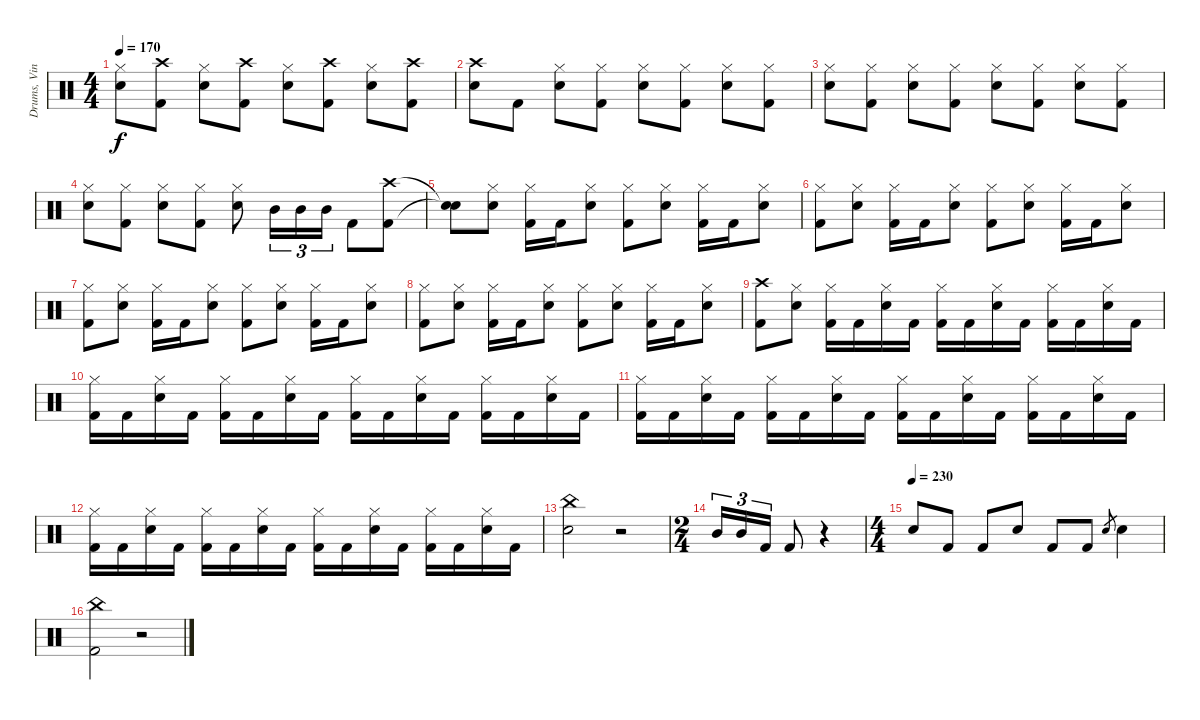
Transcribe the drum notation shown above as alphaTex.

\track ("Drums, Vinnie" "Drums, Vin") {instrument percussion}
\staff {score}
\articulation defaults
\ts (4 4)
\tempo 170
\clef neutral
\ks c
("Hi-Hat (closed)" "Electric Snare (hit)").8{dy f} ("Crash high (hit)" "Kick (hit) 2").8 ("Hi-Hat (closed)" "Electric Snare (hit)").8 ("Crash high (hit)" "Kick (hit) 2").8 ("Hi-Hat (closed)" "Electric Snare (hit)").8 ("Crash high (hit)" "Kick (hit) 2").8 ("Hi-Hat (closed)" "Electric Snare (hit)").8 ("Crash high (hit)" "Kick (hit) 2").8 |
("Crash high (hit)" "Electric Snare (hit)").8 "Kick (hit) 2".8 ("Hi-Hat (closed)" "Electric Snare (hit)").8 ("Hi-Hat (closed)" "Kick (hit) 2").8 ("Hi-Hat (closed)" "Electric Snare (hit)").8 ("Hi-Hat (closed)" "Kick (hit) 2").8 ("Hi-Hat (closed)" "Electric Snare (hit)").8 ("Hi-Hat (closed)" "Kick (hit) 2").8 |
("Hi-Hat (closed)" "Electric Snare (hit)").8 ("Hi-Hat (closed)" "Kick (hit) 2").8 ("Hi-Hat (closed)" "Electric Snare (hit)").8 ("Hi-Hat (closed)" "Kick (hit) 2").8 ("Hi-Hat (closed)" "Electric Snare (hit)").8 ("Hi-Hat (closed)" "Kick (hit) 2").8 ("Hi-Hat (closed)" "Electric Snare (hit)").8 ("Hi-Hat (closed)" "Kick (hit) 2").8 |
("Hi-Hat (closed)" "Electric Snare (hit)").8 ("Hi-Hat (closed)" "Kick (hit) 2").8 ("Hi-Hat (closed)" "Electric Snare (hit)").8 ("Hi-Hat (closed)" "Kick (hit) 2").8 ("Hi-Hat (closed)" "Electric Snare (hit)").8 "Mid Tom (hit)".16{tu (3 2)} "Mid Tom (hit)".16{tu (3 2)} "Mid Tom (hit)".16{tu (3 2)} "Kick (hit) 2".8 ("Crash high (hit)" "Kick (hit) 2").8 |
("Snare (hit)"{t} "Snare (hit)"{t}).8 ("Hi-Hat (closed)" "Electric Snare (hit)").8 ("Hi-Hat (closed)" "Kick (hit) 2").16 "Kick (hit) 2".16 ("Hi-Hat (closed)" "Electric Snare (hit)").8 ("Hi-Hat (closed)" "Kick (hit) 2").8 ("Hi-Hat (closed)" "Electric Snare (hit)").8 ("Hi-Hat (closed)" "Kick (hit) 2").16 "Kick (hit) 2".16 ("Hi-Hat (closed)" "Electric Snare (hit)").8 |
("Hi-Hat (closed)" "Kick (hit) 2").8 ("Hi-Hat (closed)" "Electric Snare (hit)").8 ("Hi-Hat (closed)" "Kick (hit) 2").16 "Kick (hit) 2".16 ("Hi-Hat (closed)" "Electric Snare (hit)").8 ("Hi-Hat (closed)" "Kick (hit) 2").8 ("Hi-Hat (closed)" "Electric Snare (hit)").8 ("Hi-Hat (closed)" "Kick (hit) 2").16 "Kick (hit) 2".16 ("Hi-Hat (closed)" "Electric Snare (hit)").8 |
("Hi-Hat (closed)" "Kick (hit) 2").8 ("Hi-Hat (closed)" "Electric Snare (hit)").8 ("Hi-Hat (closed)" "Kick (hit) 2").16 "Kick (hit) 2".16 ("Hi-Hat (closed)" "Electric Snare (hit)").8 ("Hi-Hat (closed)" "Kick (hit) 2").8 ("Hi-Hat (closed)" "Electric Snare (hit)").8 ("Hi-Hat (closed)" "Kick (hit) 2").16 "Kick (hit) 2".16 ("Hi-Hat (closed)" "Electric Snare (hit)").8 |
("Hi-Hat (closed)" "Kick (hit) 2").8 ("Hi-Hat (closed)" "Electric Snare (hit)").8 ("Hi-Hat (closed)" "Kick (hit) 2").16 "Kick (hit) 2".16 ("Hi-Hat (closed)" "Electric Snare (hit)").8 ("Hi-Hat (closed)" "Kick (hit) 2").8 ("Hi-Hat (closed)" "Electric Snare (hit)").8 ("Hi-Hat (closed)" "Kick (hit) 2").16 "Kick (hit) 2".16 ("Hi-Hat (closed)" "Electric Snare (hit)").8 |
("Crash high (hit)" "Kick (hit) 2").8 ("Hi-Hat (closed)" "Electric Snare (hit)").8 ("Hi-Hat (closed)" "Kick (hit) 2").16 "Kick (hit) 2".16 ("Hi-Hat (closed)" "Electric Snare (hit)").16 "Kick (hit) 2".16 ("Hi-Hat (closed)" "Kick (hit) 2").16 "Kick (hit) 2".16 ("Hi-Hat (closed)" "Electric Snare (hit)").16 "Kick (hit) 2".16 ("Hi-Hat (closed)" "Kick (hit) 2").16 "Kick (hit) 2".16 ("Hi-Hat (closed)" "Electric Snare (hit)").16 "Kick (hit) 2".16 |
("Hi-Hat (closed)" "Kick (hit) 2").16 "Kick (hit) 2".16 ("Hi-Hat (closed)" "Electric Snare (hit)").16 "Kick (hit) 2".16 ("Hi-Hat (closed)" "Kick (hit) 2").16 "Kick (hit) 2".16 ("Hi-Hat (closed)" "Electric Snare (hit)").16 "Kick (hit) 2".16 ("Hi-Hat (closed)" "Kick (hit) 2").16 "Kick (hit) 2".16 ("Hi-Hat (closed)" "Electric Snare (hit)").16 "Kick (hit) 2".16 ("Hi-Hat (closed)" "Kick (hit) 2").16 "Kick (hit) 2".16 ("Hi-Hat (closed)" "Electric Snare (hit)").16 "Kick (hit) 2".16 |
("Hi-Hat (closed)" "Kick (hit) 2").16 "Kick (hit) 2".16 ("Hi-Hat (closed)" "Electric Snare (hit)").16 "Kick (hit) 2".16 ("Hi-Hat (closed)" "Kick (hit) 2").16 "Kick (hit) 2".16 ("Hi-Hat (closed)" "Electric Snare (hit)").16 "Kick (hit) 2".16 ("Hi-Hat (closed)" "Kick (hit) 2").16 "Kick (hit) 2".16 ("Hi-Hat (closed)" "Electric Snare (hit)").16 "Kick (hit) 2".16 ("Hi-Hat (closed)" "Kick (hit) 2").16 "Kick (hit) 2".16 ("Hi-Hat (closed)" "Electric Snare (hit)").16 "Kick (hit) 2".16 |
("Hi-Hat (closed)" "Kick (hit) 2").16 "Kick (hit) 2".16 ("Hi-Hat (closed)" "Electric Snare (hit)").16 "Kick (hit) 2".16 ("Hi-Hat (closed)" "Kick (hit) 2").16 "Kick (hit) 2".16 ("Hi-Hat (closed)" "Electric Snare (hit)").16 "Kick (hit) 2".16 ("Hi-Hat (closed)" "Kick (hit) 2").16 "Kick (hit) 2".16 ("Hi-Hat (closed)" "Electric Snare (hit)").16 "Kick (hit) 2".16 ("Hi-Hat (closed)" "Kick (hit) 2").16 "Kick (hit) 2".16 ("Hi-Hat (closed)" "Electric Snare (hit)").16 "Kick (hit) 2".16 |
("China (hit)" "Electric Snare (hit)").2 r.2 |
\ts (2 4)
"Mid Tom (hit)".16{tu (3 2)} "Mid Tom (hit)".16{tu (3 2)} "Kick (hit) 2".16{tu (3 2)} "Kick (hit) 2".8 r.4 |
\ts (4 4)
\tempo (230)
"Electric Snare (hit)".8 "Kick (hit) 2".8 "Kick (hit) 2".8 "Electric Snare (hit)".8 "Kick (hit) 2".8 "Kick (hit) 2".8 "Electric Snare (hit)".8{gr} "Electric Snare (hit)".4 |
("China (hit)" "Kick (hit) 2").2 r.2
